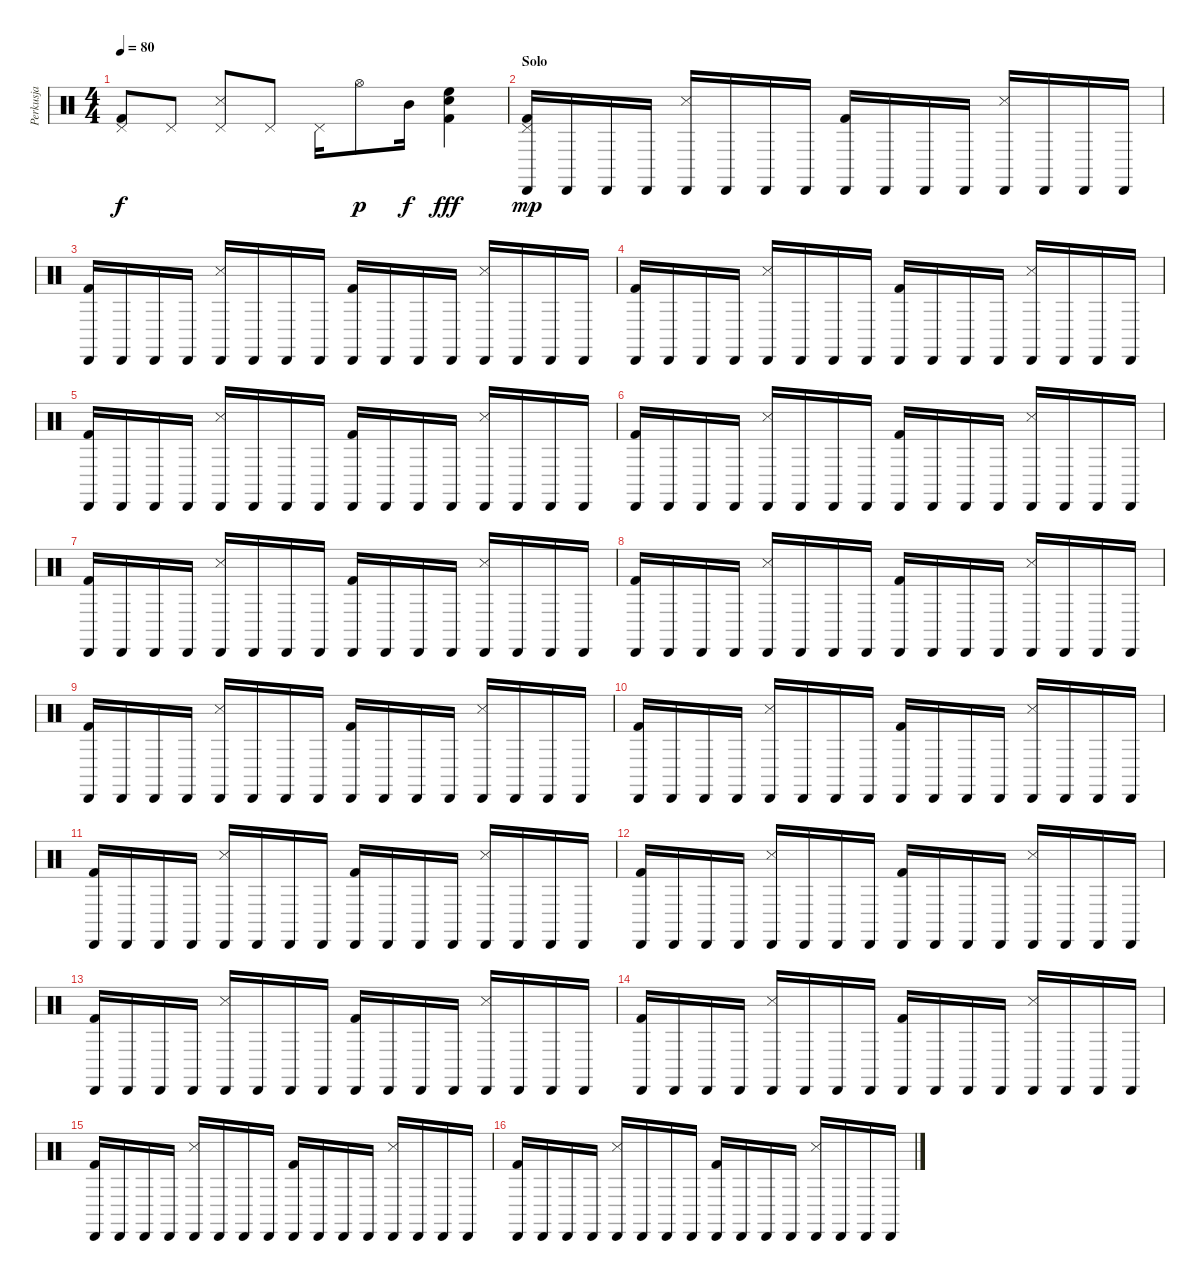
\track ("Perkusja" "Perkusja") {instrument percussion}
\staff {score}
\articulation defaults
\ts (4 4)
\tempo 80
\clef neutral
\ks c
("Pedal Hi-Hat (hit)" "Kick (hit) 2").8{dy f} "Pedal Hi-Hat (hit)".8 ("Pedal Hi-Hat (hit)" "Snare (side stick) 3").8 "Pedal Hi-Hat (hit)".8 "Pedal Hi-Hat (hit)".16 "Hi-Hat (open)".8{dy p} "Mid Tom (hit)".16{dy f} ("Snare (hit) 2" "High Floor Tom (hit)" "Kick (hit) 2").4{dy fff} |
\section ("" "Solo")
("Pedal Hi-Hat (hit)" "Cabasa (hit)" "Kick (hit) 2").16{dy mp} "Cabasa (hit)".16 "Cabasa (hit)".16 "Cabasa (hit)".16 ("Cabasa (hit)" "Snare (side stick) 3").16 "Cabasa (hit)".16 "Cabasa (hit)".16 "Cabasa (hit)".16 ("Cabasa (hit)" "Kick (hit) 2").16 "Cabasa (hit)".16 "Cabasa (hit)".16 "Cabasa (hit)".16 ("Cabasa (hit)" "Snare (side stick) 3").16 "Cabasa (hit)".16 "Cabasa (hit)".16 "Cabasa (hit)".16 |
("Cabasa (hit)" "Kick (hit) 2").16 "Cabasa (hit)".16 "Cabasa (hit)".16 "Cabasa (hit)".16 ("Cabasa (hit)" "Snare (side stick) 3").16 "Cabasa (hit)".16 "Cabasa (hit)".16 "Cabasa (hit)".16 ("Cabasa (hit)" "Kick (hit) 2").16 "Cabasa (hit)".16 "Cabasa (hit)".16 "Cabasa (hit)".16 ("Cabasa (hit)" "Snare (side stick) 3").16 "Cabasa (hit)".16 "Cabasa (hit)".16 "Cabasa (hit)".16 |
("Cabasa (hit)" "Kick (hit) 2").16 "Cabasa (hit)".16 "Cabasa (hit)".16 "Cabasa (hit)".16 ("Cabasa (hit)" "Snare (side stick) 3").16 "Cabasa (hit)".16 "Cabasa (hit)".16 "Cabasa (hit)".16 ("Cabasa (hit)" "Kick (hit) 2").16 "Cabasa (hit)".16 "Cabasa (hit)".16 "Cabasa (hit)".16 ("Cabasa (hit)" "Snare (side stick) 3").16 "Cabasa (hit)".16 "Cabasa (hit)".16 "Cabasa (hit)".16 |
("Cabasa (hit)" "Kick (hit) 2").16 "Cabasa (hit)".16 "Cabasa (hit)".16 "Cabasa (hit)".16 ("Cabasa (hit)" "Snare (side stick) 3").16 "Cabasa (hit)".16 "Cabasa (hit)".16 "Cabasa (hit)".16 ("Cabasa (hit)" "Kick (hit) 2").16 "Cabasa (hit)".16 "Cabasa (hit)".16 "Cabasa (hit)".16 ("Cabasa (hit)" "Snare (side stick) 3").16 "Cabasa (hit)".16 "Cabasa (hit)".16 "Cabasa (hit)".16 |
("Cabasa (hit)" "Kick (hit) 2").16 "Cabasa (hit)".16 "Cabasa (hit)".16 "Cabasa (hit)".16 ("Cabasa (hit)" "Snare (side stick) 3").16 "Cabasa (hit)".16 "Cabasa (hit)".16 "Cabasa (hit)".16 ("Cabasa (hit)" "Kick (hit) 2").16 "Cabasa (hit)".16 "Cabasa (hit)".16 "Cabasa (hit)".16 ("Cabasa (hit)" "Snare (side stick) 3").16 "Cabasa (hit)".16 "Cabasa (hit)".16 "Cabasa (hit)".16 |
("Cabasa (hit)" "Kick (hit) 2").16 "Cabasa (hit)".16 "Cabasa (hit)".16 "Cabasa (hit)".16 ("Cabasa (hit)" "Snare (side stick) 3").16 "Cabasa (hit)".16 "Cabasa (hit)".16 "Cabasa (hit)".16 ("Cabasa (hit)" "Kick (hit) 2").16 "Cabasa (hit)".16 "Cabasa (hit)".16 "Cabasa (hit)".16 ("Cabasa (hit)" "Snare (side stick) 3").16 "Cabasa (hit)".16 "Cabasa (hit)".16 "Cabasa (hit)".16 |
("Cabasa (hit)" "Kick (hit) 2").16 "Cabasa (hit)".16 "Cabasa (hit)".16 "Cabasa (hit)".16 ("Cabasa (hit)" "Snare (side stick) 3").16 "Cabasa (hit)".16 "Cabasa (hit)".16 "Cabasa (hit)".16 ("Cabasa (hit)" "Kick (hit) 2").16 "Cabasa (hit)".16 "Cabasa (hit)".16 "Cabasa (hit)".16 ("Cabasa (hit)" "Snare (side stick) 3").16 "Cabasa (hit)".16 "Cabasa (hit)".16 "Cabasa (hit)".16 |
("Cabasa (hit)" "Kick (hit) 2").16 "Cabasa (hit)".16 "Cabasa (hit)".16 "Cabasa (hit)".16 ("Cabasa (hit)" "Snare (side stick) 3").16 "Cabasa (hit)".16 "Cabasa (hit)".16 "Cabasa (hit)".16 ("Cabasa (hit)" "Kick (hit) 2").16 "Cabasa (hit)".16 "Cabasa (hit)".16 "Cabasa (hit)".16 ("Cabasa (hit)" "Snare (side stick) 3").16 "Cabasa (hit)".16 "Cabasa (hit)".16 "Cabasa (hit)".16 |
("Cabasa (hit)" "Kick (hit) 2").16 "Cabasa (hit)".16 "Cabasa (hit)".16 "Cabasa (hit)".16 ("Cabasa (hit)" "Snare (side stick) 3").16 "Cabasa (hit)".16 "Cabasa (hit)".16 "Cabasa (hit)".16 ("Cabasa (hit)" "Kick (hit) 2").16 "Cabasa (hit)".16 "Cabasa (hit)".16 "Cabasa (hit)".16 ("Cabasa (hit)" "Snare (side stick) 3").16 "Cabasa (hit)".16 "Cabasa (hit)".16 "Cabasa (hit)".16 |
("Cabasa (hit)" "Kick (hit) 2").16 "Cabasa (hit)".16 "Cabasa (hit)".16 "Cabasa (hit)".16 ("Cabasa (hit)" "Snare (side stick) 3").16 "Cabasa (hit)".16 "Cabasa (hit)".16 "Cabasa (hit)".16 ("Cabasa (hit)" "Kick (hit) 2").16 "Cabasa (hit)".16 "Cabasa (hit)".16 "Cabasa (hit)".16 ("Cabasa (hit)" "Snare (side stick) 3").16 "Cabasa (hit)".16 "Cabasa (hit)".16 "Cabasa (hit)".16 |
("Cabasa (hit)" "Kick (hit) 2").16 "Cabasa (hit)".16 "Cabasa (hit)".16 "Cabasa (hit)".16 ("Cabasa (hit)" "Snare (side stick) 3").16 "Cabasa (hit)".16 "Cabasa (hit)".16 "Cabasa (hit)".16 ("Cabasa (hit)" "Kick (hit) 2").16 "Cabasa (hit)".16 "Cabasa (hit)".16 "Cabasa (hit)".16 ("Cabasa (hit)" "Snare (side stick) 3").16 "Cabasa (hit)".16 "Cabasa (hit)".16 "Cabasa (hit)".16 |
("Cabasa (hit)" "Kick (hit) 2").16 "Cabasa (hit)".16 "Cabasa (hit)".16 "Cabasa (hit)".16 ("Cabasa (hit)" "Snare (side stick) 3").16 "Cabasa (hit)".16 "Cabasa (hit)".16 "Cabasa (hit)".16 ("Cabasa (hit)" "Kick (hit) 2").16 "Cabasa (hit)".16 "Cabasa (hit)".16 "Cabasa (hit)".16 ("Cabasa (hit)" "Snare (side stick) 3").16 "Cabasa (hit)".16 "Cabasa (hit)".16 "Cabasa (hit)".16 |
("Cabasa (hit)" "Kick (hit) 2").16 "Cabasa (hit)".16 "Cabasa (hit)".16 "Cabasa (hit)".16 ("Cabasa (hit)" "Snare (side stick) 3").16 "Cabasa (hit)".16 "Cabasa (hit)".16 "Cabasa (hit)".16 ("Cabasa (hit)" "Kick (hit) 2").16 "Cabasa (hit)".16 "Cabasa (hit)".16 "Cabasa (hit)".16 ("Cabasa (hit)" "Snare (side stick) 3").16 "Cabasa (hit)".16 "Cabasa (hit)".16 "Cabasa (hit)".16 |
("Cabasa (hit)" "Kick (hit) 2").16 "Cabasa (hit)".16 "Cabasa (hit)".16 "Cabasa (hit)".16 ("Cabasa (hit)" "Snare (side stick) 3").16 "Cabasa (hit)".16 "Cabasa (hit)".16 "Cabasa (hit)".16 ("Cabasa (hit)" "Kick (hit) 2").16 "Cabasa (hit)".16 "Cabasa (hit)".16 "Cabasa (hit)".16 ("Cabasa (hit)" "Snare (side stick) 3").16 "Cabasa (hit)".16 "Cabasa (hit)".16 "Cabasa (hit)".16 |
("Cabasa (hit)" "Kick (hit) 2").16 "Cabasa (hit)".16 "Cabasa (hit)".16 "Cabasa (hit)".16 ("Cabasa (hit)" "Snare (side stick) 3").16 "Cabasa (hit)".16 "Cabasa (hit)".16 "Cabasa (hit)".16 ("Cabasa (hit)" "Kick (hit) 2").16 "Cabasa (hit)".16 "Cabasa (hit)".16 "Cabasa (hit)".16 ("Cabasa (hit)" "Snare (side stick) 3").16 "Cabasa (hit)".16 "Cabasa (hit)".16 "Cabasa (hit)".16
